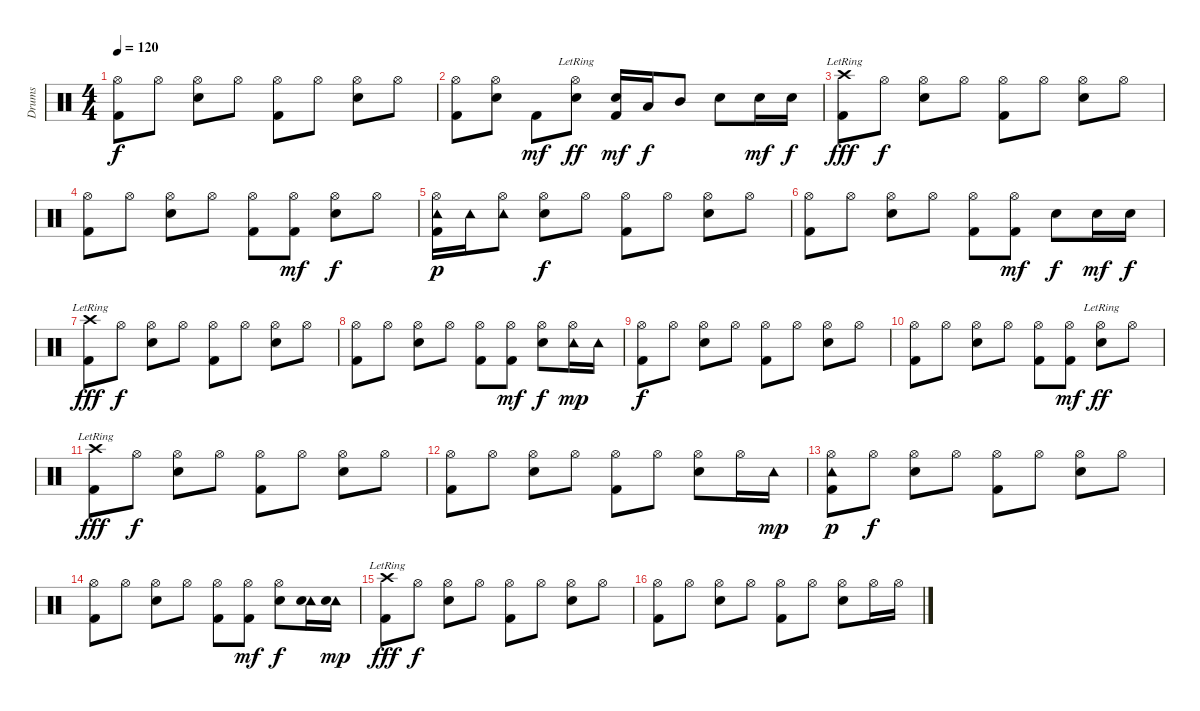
\track ("Drums" "Drums") {instrument percussion}
\staff {score}
\articulation defaults
\ts (4 4)
\tempo 120
\clef neutral
\ks c
("Hi-Hat (open)" "Kick (hit) 2").8{dy f} "Hi-Hat (open)".8 ("Hi-Hat (open)" "Electric Snare (hit)").8 "Hi-Hat (open)".8 ("Hi-Hat (open)" "Kick (hit) 2").8 "Hi-Hat (open)".8 ("Hi-Hat (open)" "Electric Snare (hit)").8 "Hi-Hat (open)".8 |
("Hi-Hat (open)" "Kick (hit) 2").8 ("Hi-Hat (open)" "Electric Snare (hit)").8 "Kick (hit) 2".8{dy mf} ("Hi-Hat (open)"{lr} "Electric Snare (hit)").8{dy ff} ("Electric Snare (hit)" "Kick (hit) 2").16{dy mf} "Low Tom (hit)".16{dy f} "Mid Tom (hit)".8 "Electric Snare (hit)".8 "Electric Snare (hit)".16{dy mf} "Electric Snare (hit)".16{dy f} |
("Crash high (hit)"{lr} "Kick (hit) 2").8{dy fff} "Hi-Hat (open)".8{dy f} ("Hi-Hat (open)" "Electric Snare (hit)").8 "Hi-Hat (open)".8 ("Hi-Hat (open)" "Kick (hit) 2").8 "Hi-Hat (open)".8 ("Hi-Hat (open)" "Electric Snare (hit)").8 "Hi-Hat (open)".8 |
("Hi-Hat (open)" "Kick (hit) 2").8 "Hi-Hat (open)".8 ("Hi-Hat (open)" "Electric Snare (hit)").8 "Hi-Hat (open)".8 ("Hi-Hat (open)" "Kick (hit) 2").8 ("Hi-Hat (open)" "Kick (hit) 2").8{dy mf} ("Hi-Hat (open)" "Electric Snare (hit)").8{dy f} "Hi-Hat (open)".8 |
("Tambourine (hit)" "Hi-Hat (open)" "Kick (hit) 2").16{dy p} "Tambourine (hit)".16 ("Tambourine (hit)" "Hi-Hat (open)").8 ("Hi-Hat (open)" "Electric Snare (hit)").8{dy f} "Hi-Hat (open)".8 ("Hi-Hat (open)" "Kick (hit) 2").8 "Hi-Hat (open)".8 ("Hi-Hat (open)" "Electric Snare (hit)").8 "Hi-Hat (open)".8 |
("Hi-Hat (open)" "Kick (hit) 2").8 "Hi-Hat (open)".8 ("Hi-Hat (open)" "Electric Snare (hit)").8 "Hi-Hat (open)".8 ("Hi-Hat (open)" "Kick (hit) 2").8 ("Hi-Hat (open)" "Kick (hit) 2").8{dy mf} "Electric Snare (hit)".8{dy f} "Electric Snare (hit)".16{dy mf} "Electric Snare (hit)".16{dy f} |
("Crash high (hit)"{lr} "Kick (hit) 2").8{dy fff} "Hi-Hat (open)".8{dy f} ("Hi-Hat (open)" "Electric Snare (hit)").8 "Hi-Hat (open)".8 ("Hi-Hat (open)" "Kick (hit) 2").8 "Hi-Hat (open)".8 ("Hi-Hat (open)" "Electric Snare (hit)").8 "Hi-Hat (open)".8 |
("Hi-Hat (open)" "Kick (hit) 2").8 "Hi-Hat (open)".8 ("Hi-Hat (open)" "Electric Snare (hit)").8 "Hi-Hat (open)".8 ("Hi-Hat (open)" "Kick (hit) 2").8 ("Hi-Hat (open)" "Kick (hit) 2").8{dy mf} ("Hi-Hat (open)" "Electric Snare (hit)").8{dy f} ("Hi-Hat (open)" "Tambourine (hit)").16{dy mp} "Tambourine (hit)".16 |
("Hi-Hat (open)" "Kick (hit) 2").8{dy f} "Hi-Hat (open)".8 ("Hi-Hat (open)" "Electric Snare (hit)").8 "Hi-Hat (open)".8 ("Hi-Hat (open)" "Kick (hit) 2").8 "Hi-Hat (open)".8 ("Hi-Hat (open)" "Electric Snare (hit)").8 "Hi-Hat (open)".8 |
("Hi-Hat (open)" "Kick (hit) 2").8 "Hi-Hat (open)".8 ("Hi-Hat (open)" "Electric Snare (hit)").8 "Hi-Hat (open)".8 ("Hi-Hat (open)" "Kick (hit) 2").8 ("Hi-Hat (open)" "Kick (hit) 2").8{dy mf} ("Hi-Hat (open)"{lr} "Electric Snare (hit)").8{dy ff} "Hi-Hat (open)".8 |
("Crash high (hit)"{lr} "Kick (hit) 2").8{dy fff} "Hi-Hat (open)".8{dy f} ("Hi-Hat (open)" "Electric Snare (hit)").8 "Hi-Hat (open)".8 ("Hi-Hat (open)" "Kick (hit) 2").8 "Hi-Hat (open)".8 ("Hi-Hat (open)" "Electric Snare (hit)").8 "Hi-Hat (open)".8 |
("Hi-Hat (open)" "Kick (hit) 2").8 "Hi-Hat (open)".8 ("Hi-Hat (open)" "Electric Snare (hit)").8 "Hi-Hat (open)".8 ("Hi-Hat (open)" "Kick (hit) 2").8 "Hi-Hat (open)".8 ("Hi-Hat (open)" "Electric Snare (hit)").8 "Hi-Hat (open)".16 "Tambourine (hit)".16{dy mp} |
("Hi-Hat (open)" "Tambourine (hit)" "Kick (hit) 2").8{dy p} "Hi-Hat (open)".8{dy f} ("Hi-Hat (open)" "Electric Snare (hit)").8 "Hi-Hat (open)".8 ("Hi-Hat (open)" "Kick (hit) 2").8 "Hi-Hat (open)".8 ("Hi-Hat (open)" "Electric Snare (hit)").8 "Hi-Hat (open)".8 |
("Hi-Hat (open)" "Kick (hit) 2").8 "Hi-Hat (open)".8 ("Hi-Hat (open)" "Electric Snare (hit)").8 "Hi-Hat (open)".8 ("Hi-Hat (open)" "Kick (hit) 2").8 ("Hi-Hat (open)" "Kick (hit) 2").8{dy mf} ("Hi-Hat (open)" "Electric Snare (hit)").8{dy f} ("Tambourine (hit)" "Electric Snare (hit)").16 ("Tambourine (hit)" "Electric Snare (hit)").16{dy mp} |
("Crash high (hit)"{lr} "Kick (hit) 2").8{dy fff} "Hi-Hat (open)".8{dy f} ("Hi-Hat (open)" "Electric Snare (hit)").8 "Hi-Hat (open)".8 ("Hi-Hat (open)" "Kick (hit) 2").8 "Hi-Hat (open)".8 ("Hi-Hat (open)" "Electric Snare (hit)").8 "Hi-Hat (open)".8 |
("Hi-Hat (open)" "Kick (hit) 2").8 "Hi-Hat (open)".8 ("Hi-Hat (open)" "Electric Snare (hit)").8 "Hi-Hat (open)".8 ("Hi-Hat (open)" "Kick (hit) 2").8 "Hi-Hat (open)".8 ("Hi-Hat (open)" "Electric Snare (hit)").8 "Hi-Hat (open)".16 "Hi-Hat (open)".16
